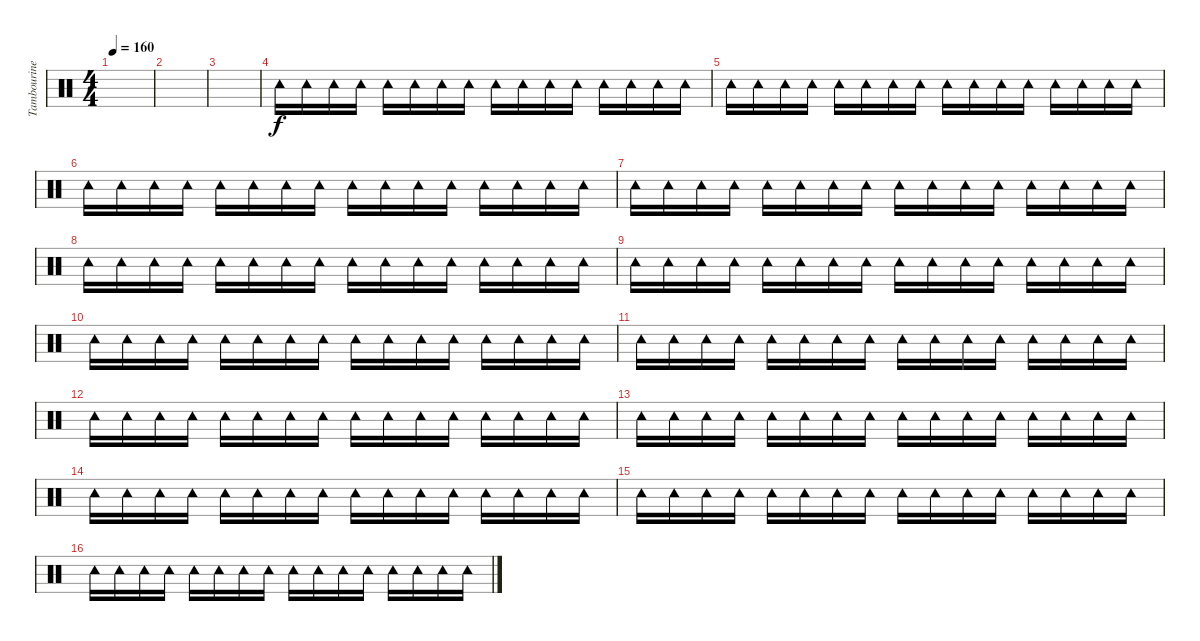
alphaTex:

\track ("Tambourine" "Tambourine") {instrument percussion}
\staff {score}
\articulation defaults
\ts (4 4)
\tempo 160
\clef neutral
\ks c
|
|
|
"Tambourine (hit)".16 "Tambourine (hit)".16 "Tambourine (hit)".16 "Tambourine (hit)".16 "Tambourine (hit)".16 "Tambourine (hit)".16 "Tambourine (hit)".16 "Tambourine (hit)".16 "Tambourine (hit)".16 "Tambourine (hit)".16 "Tambourine (hit)".16 "Tambourine (hit)".16 "Tambourine (hit)".16 "Tambourine (hit)".16 "Tambourine (hit)".16 "Tambourine (hit)".16 |
"Tambourine (hit)".16 "Tambourine (hit)".16 "Tambourine (hit)".16 "Tambourine (hit)".16 "Tambourine (hit)".16 "Tambourine (hit)".16 "Tambourine (hit)".16 "Tambourine (hit)".16 "Tambourine (hit)".16 "Tambourine (hit)".16 "Tambourine (hit)".16 "Tambourine (hit)".16 "Tambourine (hit)".16 "Tambourine (hit)".16 "Tambourine (hit)".16 "Tambourine (hit)".16 |
"Tambourine (hit)".16 "Tambourine (hit)".16 "Tambourine (hit)".16 "Tambourine (hit)".16 "Tambourine (hit)".16 "Tambourine (hit)".16 "Tambourine (hit)".16 "Tambourine (hit)".16 "Tambourine (hit)".16 "Tambourine (hit)".16 "Tambourine (hit)".16 "Tambourine (hit)".16 "Tambourine (hit)".16 "Tambourine (hit)".16 "Tambourine (hit)".16 "Tambourine (hit)".16 |
"Tambourine (hit)".16 "Tambourine (hit)".16 "Tambourine (hit)".16 "Tambourine (hit)".16 "Tambourine (hit)".16 "Tambourine (hit)".16 "Tambourine (hit)".16 "Tambourine (hit)".16 "Tambourine (hit)".16 "Tambourine (hit)".16 "Tambourine (hit)".16 "Tambourine (hit)".16 "Tambourine (hit)".16 "Tambourine (hit)".16 "Tambourine (hit)".16 "Tambourine (hit)".16 |
"Tambourine (hit)".16 "Tambourine (hit)".16 "Tambourine (hit)".16 "Tambourine (hit)".16 "Tambourine (hit)".16 "Tambourine (hit)".16 "Tambourine (hit)".16 "Tambourine (hit)".16 "Tambourine (hit)".16 "Tambourine (hit)".16 "Tambourine (hit)".16 "Tambourine (hit)".16 "Tambourine (hit)".16 "Tambourine (hit)".16 "Tambourine (hit)".16 "Tambourine (hit)".16 |
"Tambourine (hit)".16 "Tambourine (hit)".16 "Tambourine (hit)".16 "Tambourine (hit)".16 "Tambourine (hit)".16 "Tambourine (hit)".16 "Tambourine (hit)".16 "Tambourine (hit)".16 "Tambourine (hit)".16 "Tambourine (hit)".16 "Tambourine (hit)".16 "Tambourine (hit)".16 "Tambourine (hit)".16 "Tambourine (hit)".16 "Tambourine (hit)".16 "Tambourine (hit)".16 |
"Tambourine (hit)".16 "Tambourine (hit)".16 "Tambourine (hit)".16 "Tambourine (hit)".16 "Tambourine (hit)".16 "Tambourine (hit)".16 "Tambourine (hit)".16 "Tambourine (hit)".16 "Tambourine (hit)".16 "Tambourine (hit)".16 "Tambourine (hit)".16 "Tambourine (hit)".16 "Tambourine (hit)".16 "Tambourine (hit)".16 "Tambourine (hit)".16 "Tambourine (hit)".16 |
"Tambourine (hit)".16 "Tambourine (hit)".16 "Tambourine (hit)".16 "Tambourine (hit)".16 "Tambourine (hit)".16 "Tambourine (hit)".16 "Tambourine (hit)".16 "Tambourine (hit)".16 "Tambourine (hit)".16 "Tambourine (hit)".16 "Tambourine (hit)".16 "Tambourine (hit)".16 "Tambourine (hit)".16 "Tambourine (hit)".16 "Tambourine (hit)".16 "Tambourine (hit)".16 |
"Tambourine (hit)".16 "Tambourine (hit)".16 "Tambourine (hit)".16 "Tambourine (hit)".16 "Tambourine (hit)".16 "Tambourine (hit)".16 "Tambourine (hit)".16 "Tambourine (hit)".16 "Tambourine (hit)".16 "Tambourine (hit)".16 "Tambourine (hit)".16 "Tambourine (hit)".16 "Tambourine (hit)".16 "Tambourine (hit)".16 "Tambourine (hit)".16 "Tambourine (hit)".16 |
"Tambourine (hit)".16 "Tambourine (hit)".16 "Tambourine (hit)".16 "Tambourine (hit)".16 "Tambourine (hit)".16 "Tambourine (hit)".16 "Tambourine (hit)".16 "Tambourine (hit)".16 "Tambourine (hit)".16 "Tambourine (hit)".16 "Tambourine (hit)".16 "Tambourine (hit)".16 "Tambourine (hit)".16 "Tambourine (hit)".16 "Tambourine (hit)".16 "Tambourine (hit)".16 |
"Tambourine (hit)".16 "Tambourine (hit)".16 "Tambourine (hit)".16 "Tambourine (hit)".16 "Tambourine (hit)".16 "Tambourine (hit)".16 "Tambourine (hit)".16 "Tambourine (hit)".16 "Tambourine (hit)".16 "Tambourine (hit)".16 "Tambourine (hit)".16 "Tambourine (hit)".16 "Tambourine (hit)".16 "Tambourine (hit)".16 "Tambourine (hit)".16 "Tambourine (hit)".16 |
"Tambourine (hit)".16 "Tambourine (hit)".16 "Tambourine (hit)".16 "Tambourine (hit)".16 "Tambourine (hit)".16 "Tambourine (hit)".16 "Tambourine (hit)".16 "Tambourine (hit)".16 "Tambourine (hit)".16 "Tambourine (hit)".16 "Tambourine (hit)".16 "Tambourine (hit)".16 "Tambourine (hit)".16 "Tambourine (hit)".16 "Tambourine (hit)".16 "Tambourine (hit)".16 |
"Tambourine (hit)".16 "Tambourine (hit)".16 "Tambourine (hit)".16 "Tambourine (hit)".16 "Tambourine (hit)".16 "Tambourine (hit)".16 "Tambourine (hit)".16 "Tambourine (hit)".16 "Tambourine (hit)".16 "Tambourine (hit)".16 "Tambourine (hit)".16 "Tambourine (hit)".16 "Tambourine (hit)".16 "Tambourine (hit)".16 "Tambourine (hit)".16 "Tambourine (hit)".16
